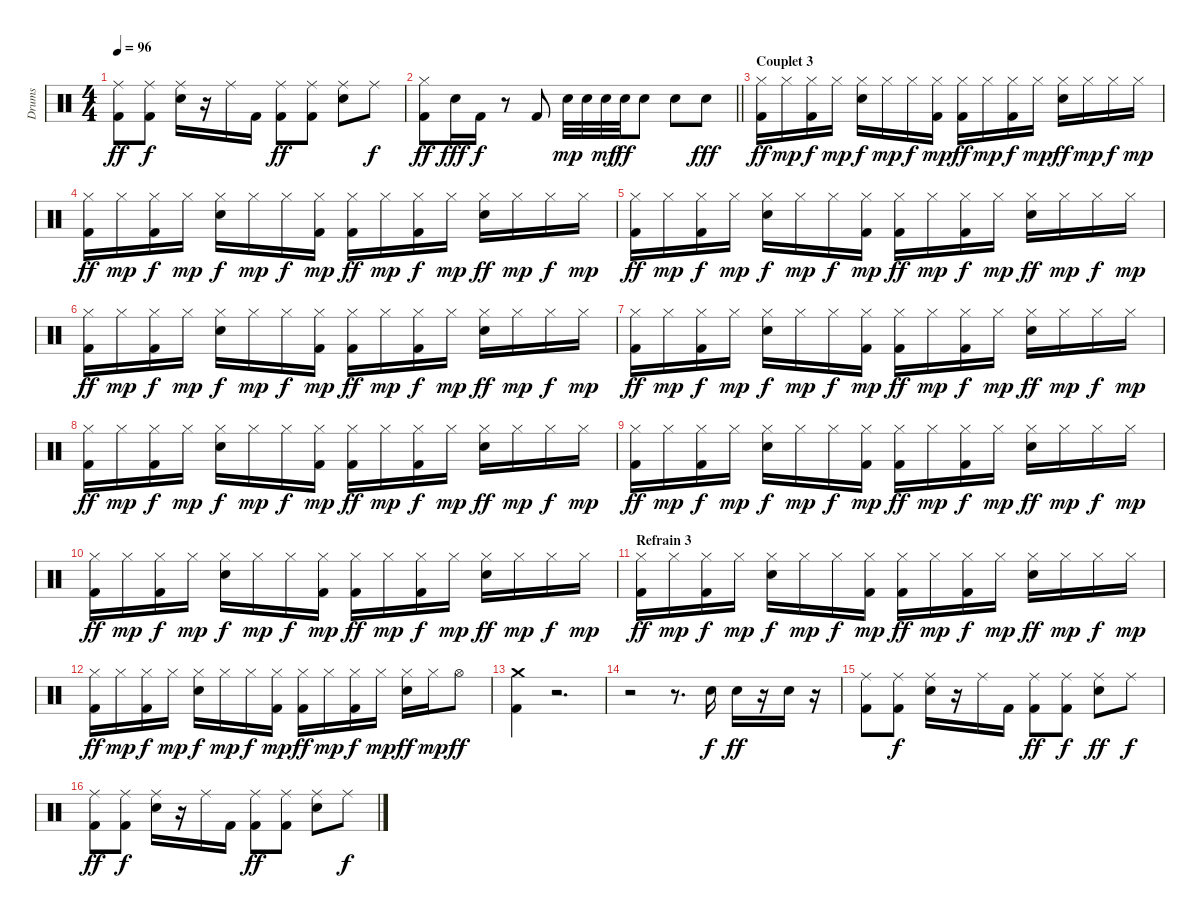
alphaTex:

\track ("Drums" "Drums") {instrument percussion}
\staff {score}
\articulation defaults
\ts (4 4)
\tempo 96
\clef neutral
\ks c
("Ride (middle)" "Kick (hit) 2").8{dy ff} ("Ride (middle)" "Kick (hit) 2").8{dy f} ("Ride (middle)" "Snare (hit) 2").16 r.16 "Ride (middle)".16 "Kick (hit) 2".16 ("Ride (middle)" "Kick (hit) 2").8{dy ff} ("Ride (middle)" "Kick (hit) 2").8 ("Ride (middle)" "Snare (hit) 2").8 "Ride (middle)".8{dy f} |
\barLineRight lightlight
("Hi-Hat (closed)" "Kick (hit) 2").8{dy ff} "Snare (hit) 2".16{dy fff} "Kick (hit) 2".16{dy f} r.8 "Kick (hit) 2".8 "Snare (hit) 2".32{dy mp} "Snare (hit) 2".32 "Snare (hit) 2".32{dy mf} "Snare (hit) 2".32{dy ff} "Snare (hit) 2".8 "Snare (hit) 2".8 "Snare (hit) 2".8{dy fff} |
\section ("" "Couplet 3")
("Hi-Hat (closed)" "Kick (hit) 2").16{dy ff} "Hi-Hat (closed)".16{dy mp} ("Hi-Hat (closed)" "Kick (hit) 2").16{dy f} "Hi-Hat (closed)".16{dy mp} ("Hi-Hat (closed)" "Snare (hit) 2").16{dy f} "Hi-Hat (closed)".16{dy mp} "Hi-Hat (closed)".16{dy f} ("Hi-Hat (closed)" "Kick (hit) 2").16{dy mp} ("Hi-Hat (closed)" "Kick (hit) 2").16{dy ff} "Hi-Hat (closed)".16{dy mp} ("Hi-Hat (closed)" "Kick (hit) 2").16{dy f} "Hi-Hat (closed)".16{dy mp} ("Hi-Hat (closed)" "Snare (hit) 2").16{dy ff} "Hi-Hat (closed)".16{dy mp} "Hi-Hat (closed)".16{dy f} "Hi-Hat (closed)".16{dy mp} |
("Hi-Hat (closed)" "Kick (hit) 2").16{dy ff} "Hi-Hat (closed)".16{dy mp} ("Hi-Hat (closed)" "Kick (hit) 2").16{dy f} "Hi-Hat (closed)".16{dy mp} ("Hi-Hat (closed)" "Snare (hit) 2").16{dy f} "Hi-Hat (closed)".16{dy mp} "Hi-Hat (closed)".16{dy f} ("Hi-Hat (closed)" "Kick (hit) 2").16{dy mp} ("Hi-Hat (closed)" "Kick (hit) 2").16{dy ff} "Hi-Hat (closed)".16{dy mp} ("Hi-Hat (closed)" "Kick (hit) 2").16{dy f} "Hi-Hat (closed)".16{dy mp} ("Hi-Hat (closed)" "Snare (hit) 2").16{dy ff} "Hi-Hat (closed)".16{dy mp} "Hi-Hat (closed)".16{dy f} "Hi-Hat (closed)".16{dy mp} |
("Hi-Hat (closed)" "Kick (hit) 2").16{dy ff} "Hi-Hat (closed)".16{dy mp} ("Hi-Hat (closed)" "Kick (hit) 2").16{dy f} "Hi-Hat (closed)".16{dy mp} ("Hi-Hat (closed)" "Snare (hit) 2").16{dy f} "Hi-Hat (closed)".16{dy mp} "Hi-Hat (closed)".16{dy f} ("Hi-Hat (closed)" "Kick (hit) 2").16{dy mp} ("Hi-Hat (closed)" "Kick (hit) 2").16{dy ff} "Hi-Hat (closed)".16{dy mp} ("Hi-Hat (closed)" "Kick (hit) 2").16{dy f} "Hi-Hat (closed)".16{dy mp} ("Hi-Hat (closed)" "Snare (hit) 2").16{dy ff} "Hi-Hat (closed)".16{dy mp} "Hi-Hat (closed)".16{dy f} "Hi-Hat (closed)".16{dy mp} |
("Hi-Hat (closed)" "Kick (hit) 2").16{dy ff} "Hi-Hat (closed)".16{dy mp} ("Hi-Hat (closed)" "Kick (hit) 2").16{dy f} "Hi-Hat (closed)".16{dy mp} ("Hi-Hat (closed)" "Snare (hit) 2").16{dy f} "Hi-Hat (closed)".16{dy mp} "Hi-Hat (closed)".16{dy f} ("Hi-Hat (closed)" "Kick (hit) 2").16{dy mp} ("Hi-Hat (closed)" "Kick (hit) 2").16{dy ff} "Hi-Hat (closed)".16{dy mp} ("Hi-Hat (closed)" "Kick (hit) 2").16{dy f} "Hi-Hat (closed)".16{dy mp} ("Hi-Hat (closed)" "Snare (hit) 2").16{dy ff} "Hi-Hat (closed)".16{dy mp} "Hi-Hat (closed)".16{dy f} "Hi-Hat (closed)".16{dy mp} |
("Hi-Hat (closed)" "Kick (hit) 2").16{dy ff} "Hi-Hat (closed)".16{dy mp} ("Hi-Hat (closed)" "Kick (hit) 2").16{dy f} "Hi-Hat (closed)".16{dy mp} ("Hi-Hat (closed)" "Snare (hit) 2").16{dy f} "Hi-Hat (closed)".16{dy mp} "Hi-Hat (closed)".16{dy f} ("Hi-Hat (closed)" "Kick (hit) 2").16{dy mp} ("Hi-Hat (closed)" "Kick (hit) 2").16{dy ff} "Hi-Hat (closed)".16{dy mp} ("Hi-Hat (closed)" "Kick (hit) 2").16{dy f} "Hi-Hat (closed)".16{dy mp} ("Hi-Hat (closed)" "Snare (hit) 2").16{dy ff} "Hi-Hat (closed)".16{dy mp} "Hi-Hat (closed)".16{dy f} "Hi-Hat (closed)".16{dy mp} |
("Hi-Hat (closed)" "Kick (hit) 2").16{dy ff} "Hi-Hat (closed)".16{dy mp} ("Hi-Hat (closed)" "Kick (hit) 2").16{dy f} "Hi-Hat (closed)".16{dy mp} ("Hi-Hat (closed)" "Snare (hit) 2").16{dy f} "Hi-Hat (closed)".16{dy mp} "Hi-Hat (closed)".16{dy f} ("Hi-Hat (closed)" "Kick (hit) 2").16{dy mp} ("Hi-Hat (closed)" "Kick (hit) 2").16{dy ff} "Hi-Hat (closed)".16{dy mp} ("Hi-Hat (closed)" "Kick (hit) 2").16{dy f} "Hi-Hat (closed)".16{dy mp} ("Hi-Hat (closed)" "Snare (hit) 2").16{dy ff} "Hi-Hat (closed)".16{dy mp} "Hi-Hat (closed)".16{dy f} "Hi-Hat (closed)".16{dy mp} |
("Hi-Hat (closed)" "Kick (hit) 2").16{dy ff} "Hi-Hat (closed)".16{dy mp} ("Hi-Hat (closed)" "Kick (hit) 2").16{dy f} "Hi-Hat (closed)".16{dy mp} ("Hi-Hat (closed)" "Snare (hit) 2").16{dy f} "Hi-Hat (closed)".16{dy mp} "Hi-Hat (closed)".16{dy f} ("Hi-Hat (closed)" "Kick (hit) 2").16{dy mp} ("Hi-Hat (closed)" "Kick (hit) 2").16{dy ff} "Hi-Hat (closed)".16{dy mp} ("Hi-Hat (closed)" "Kick (hit) 2").16{dy f} "Hi-Hat (closed)".16{dy mp} ("Hi-Hat (closed)" "Snare (hit) 2").16{dy ff} "Hi-Hat (closed)".16{dy mp} "Hi-Hat (closed)".16{dy f} "Hi-Hat (closed)".16{dy mp} |
("Hi-Hat (closed)" "Kick (hit) 2").16{dy ff} "Hi-Hat (closed)".16{dy mp} ("Hi-Hat (closed)" "Kick (hit) 2").16{dy f} "Hi-Hat (closed)".16{dy mp} ("Hi-Hat (closed)" "Snare (hit) 2").16{dy f} "Hi-Hat (closed)".16{dy mp} "Hi-Hat (closed)".16{dy f} ("Hi-Hat (closed)" "Kick (hit) 2").16{dy mp} ("Hi-Hat (closed)" "Kick (hit) 2").16{dy ff} "Hi-Hat (closed)".16{dy mp} ("Hi-Hat (closed)" "Kick (hit) 2").16{dy f} "Hi-Hat (closed)".16{dy mp} ("Hi-Hat (closed)" "Snare (hit) 2").16{dy ff} "Hi-Hat (closed)".16{dy mp} "Hi-Hat (closed)".16{dy f} "Hi-Hat (closed)".16{dy mp} |
\section ("" "Refrain 3")
("Hi-Hat (closed)" "Kick (hit) 2").16{dy ff} "Hi-Hat (closed)".16{dy mp} ("Hi-Hat (closed)" "Kick (hit) 2").16{dy f} "Hi-Hat (closed)".16{dy mp} ("Hi-Hat (closed)" "Snare (hit) 2").16{dy f} "Hi-Hat (closed)".16{dy mp} "Hi-Hat (closed)".16{dy f} ("Hi-Hat (closed)" "Kick (hit) 2").16{dy mp} ("Hi-Hat (closed)" "Kick (hit) 2").16{dy ff} "Hi-Hat (closed)".16{dy mp} ("Hi-Hat (closed)" "Kick (hit) 2").16{dy f} "Hi-Hat (closed)".16{dy mp} ("Hi-Hat (closed)" "Snare (hit) 2").16{dy ff} "Hi-Hat (closed)".16{dy mp} "Hi-Hat (closed)".16{dy f} "Hi-Hat (closed)".16{dy mp} |
("Hi-Hat (closed)" "Kick (hit) 2").16{dy ff} "Hi-Hat (closed)".16{dy mp} ("Hi-Hat (closed)" "Kick (hit) 2").16{dy f} "Hi-Hat (closed)".16{dy mp} ("Hi-Hat (closed)" "Snare (hit) 2").16{dy f} "Hi-Hat (closed)".16{dy mp} "Hi-Hat (closed)".16{dy f} ("Hi-Hat (closed)" "Kick (hit) 2").16{dy mp} ("Hi-Hat (closed)" "Kick (hit) 2").16{dy ff} "Hi-Hat (closed)".16{dy mp} ("Hi-Hat (closed)" "Kick (hit) 2").16{dy f} "Hi-Hat (closed)".16{dy mp} ("Hi-Hat (closed)" "Snare (hit) 2").16{dy ff} "Hi-Hat (closed)".16{dy mp} "Hi-Hat (open)".8{dy ff} |
("Crash medium (hit)" "Kick (hit) 2").4 r.2{d} |
r.2 r.8{d} "Snare (hit) 2".16{dy f} "Snare (hit) 2".16{dy ff} r.16 "Snare (hit) 2".16 r.16 |
("Ride (middle)" "Kick (hit) 2").8 ("Ride (middle)" "Kick (hit) 2").8{dy f} ("Ride (middle)" "Snare (hit) 2").16 r.16 "Ride (middle)".16 "Kick (hit) 2".16 ("Ride (middle)" "Kick (hit) 2").8{dy ff} ("Ride (middle)" "Kick (hit) 2").8{dy f} ("Ride (middle)" "Snare (hit) 2").8{dy ff} "Ride (middle)".8{dy f} |
("Ride (middle)" "Kick (hit) 2").8{dy ff} ("Ride (middle)" "Kick (hit) 2").8{dy f} ("Ride (middle)" "Snare (hit) 2").16 r.16 "Ride (middle)".16 "Kick (hit) 2".16 ("Ride (middle)" "Kick (hit) 2").8{dy ff} ("Ride (middle)" "Kick (hit) 2").8 ("Ride (middle)" "Snare (hit) 2").8 "Ride (middle)".8{dy f}
